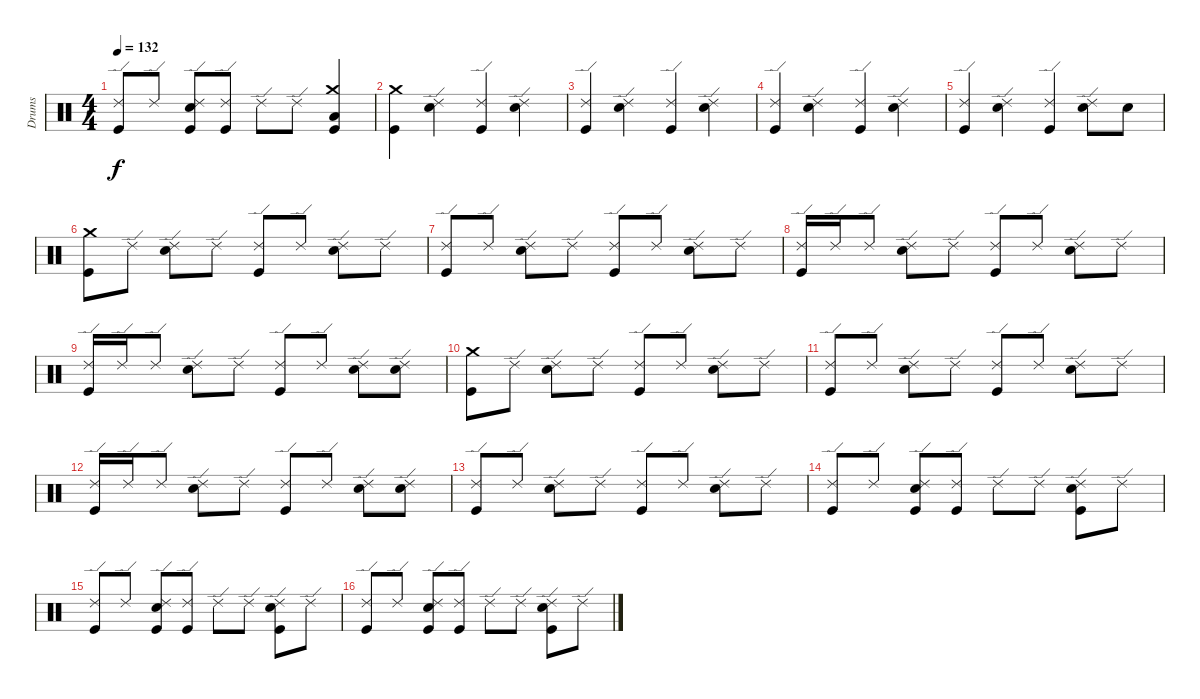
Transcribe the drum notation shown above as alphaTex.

\track ("Drums" "Drums") {instrument percussion}
\staff {score}
\articulation defaults
\ts (4 4)
\tempo 132
\clef neutral
\ks c
("Ride (edge) 2" "Kick (hit)").8{dy f} "Ride (edge) 2".8 ("Ride (edge) 2" "Snare (hit) 2" "Kick (hit)").8 ("Ride (edge) 2" "Kick (hit)").8 "Ride (edge) 2".8 "Ride (edge) 2".8 ("Crash medium (hit)" "Low Floor Tom (hit)" "Kick (hit)").4 |
("Crash medium (hit)" "Kick (hit)").4 ("Ride (edge) 2" "Snare (hit) 2").4 ("Ride (edge) 2" "Kick (hit)").4 ("Ride (edge) 2" "Snare (hit) 2").4 |
("Ride (edge) 2" "Kick (hit)").4 ("Ride (edge) 2" "Snare (hit) 2").4 ("Ride (edge) 2" "Kick (hit)").4 ("Ride (edge) 2" "Snare (hit) 2").4 |
("Ride (edge) 2" "Kick (hit)").4 ("Ride (edge) 2" "Snare (hit) 2").4 ("Ride (edge) 2" "Kick (hit)").4 ("Ride (edge) 2" "Snare (hit) 2").4 |
("Ride (edge) 2" "Kick (hit)").4 ("Ride (edge) 2" "Snare (hit) 2").4 ("Ride (edge) 2" "Kick (hit)").4 ("Ride (edge) 2" "Snare (hit) 2").8 "Snare (hit) 2".8 |
("Crash medium (hit)" "Kick (hit)").8 "Ride (edge) 2".8 ("Ride (edge) 2" "Snare (hit) 2").8 "Ride (edge) 2".8 ("Ride (edge) 2" "Kick (hit)").8 "Ride (edge) 2".8 ("Ride (edge) 2" "Snare (hit) 2").8 "Ride (edge) 2".8 |
("Ride (edge) 2" "Kick (hit)").8 "Ride (edge) 2".8 ("Ride (edge) 2" "Snare (hit) 2").8 "Ride (edge) 2".8 ("Ride (edge) 2" "Kick (hit)").8 "Ride (edge) 2".8 ("Ride (edge) 2" "Snare (hit) 2").8 "Ride (edge) 2".8 |
("Ride (edge) 2" "Kick (hit)").16 "Ride (edge) 2".16 "Ride (edge) 2".8 ("Ride (edge) 2" "Snare (hit) 2").8 "Ride (edge) 2".8 ("Ride (edge) 2" "Kick (hit)").8 "Ride (edge) 2".8 ("Ride (edge) 2" "Snare (hit) 2").8 "Ride (edge) 2".8 |
("Ride (edge) 2" "Kick (hit)").16 "Ride (edge) 2".16 "Ride (edge) 2".8 ("Ride (edge) 2" "Snare (hit) 2").8 "Ride (edge) 2".8 ("Ride (edge) 2" "Kick (hit)").8 "Ride (edge) 2".8 ("Ride (edge) 2" "Snare (hit) 2").8 ("Ride (edge) 2" "Snare (hit) 2").8 |
("Crash medium (hit)" "Kick (hit)").8 "Ride (edge) 2".8 ("Ride (edge) 2" "Snare (hit) 2").8 "Ride (edge) 2".8 ("Ride (edge) 2" "Kick (hit)").8 "Ride (edge) 2".8 ("Ride (edge) 2" "Snare (hit) 2").8 "Ride (edge) 2".8 |
("Ride (edge) 2" "Kick (hit)").8 "Ride (edge) 2".8 ("Ride (edge) 2" "Snare (hit) 2").8 "Ride (edge) 2".8 ("Ride (edge) 2" "Kick (hit)").8 "Ride (edge) 2".8 ("Ride (edge) 2" "Snare (hit) 2").8 "Ride (edge) 2".8 |
("Ride (edge) 2" "Kick (hit)").16 "Ride (edge) 2".16 "Ride (edge) 2".8 ("Ride (edge) 2" "Snare (hit) 2").8 "Ride (edge) 2".8 ("Ride (edge) 2" "Kick (hit)").8 "Ride (edge) 2".8 ("Ride (edge) 2" "Snare (hit) 2").8 ("Ride (edge) 2" "Snare (hit) 2").8 |
("Ride (edge) 2" "Kick (hit)").8 "Ride (edge) 2".8 ("Ride (edge) 2" "Snare (hit) 2").8 "Ride (edge) 2".8 ("Ride (edge) 2" "Kick (hit)").8 "Ride (edge) 2".8 ("Ride (edge) 2" "Snare (hit) 2").8 "Ride (edge) 2".8 |
("Ride (edge) 2" "Kick (hit)").8 "Ride (edge) 2".8 ("Ride (edge) 2" "Snare (hit) 2" "Kick (hit)").8 ("Ride (edge) 2" "Kick (hit)").8 "Ride (edge) 2".8 "Ride (edge) 2".8 ("Ride (edge) 2" "Snare (hit) 2" "Kick (hit)").8 "Ride (edge) 2".8 |
("Ride (edge) 2" "Kick (hit)").8 "Ride (edge) 2".8 ("Ride (edge) 2" "Snare (hit) 2" "Kick (hit)").8 ("Ride (edge) 2" "Kick (hit)").8 "Ride (edge) 2".8 "Ride (edge) 2".8 ("Ride (edge) 2" "Snare (hit) 2" "Kick (hit)").8 "Ride (edge) 2".8 |
("Ride (edge) 2" "Kick (hit)").8 "Ride (edge) 2".8 ("Ride (edge) 2" "Snare (hit) 2" "Kick (hit)").8 ("Ride (edge) 2" "Kick (hit)").8 "Ride (edge) 2".8 "Ride (edge) 2".8 ("Ride (edge) 2" "Snare (hit) 2" "Kick (hit)").8 "Ride (edge) 2".8
